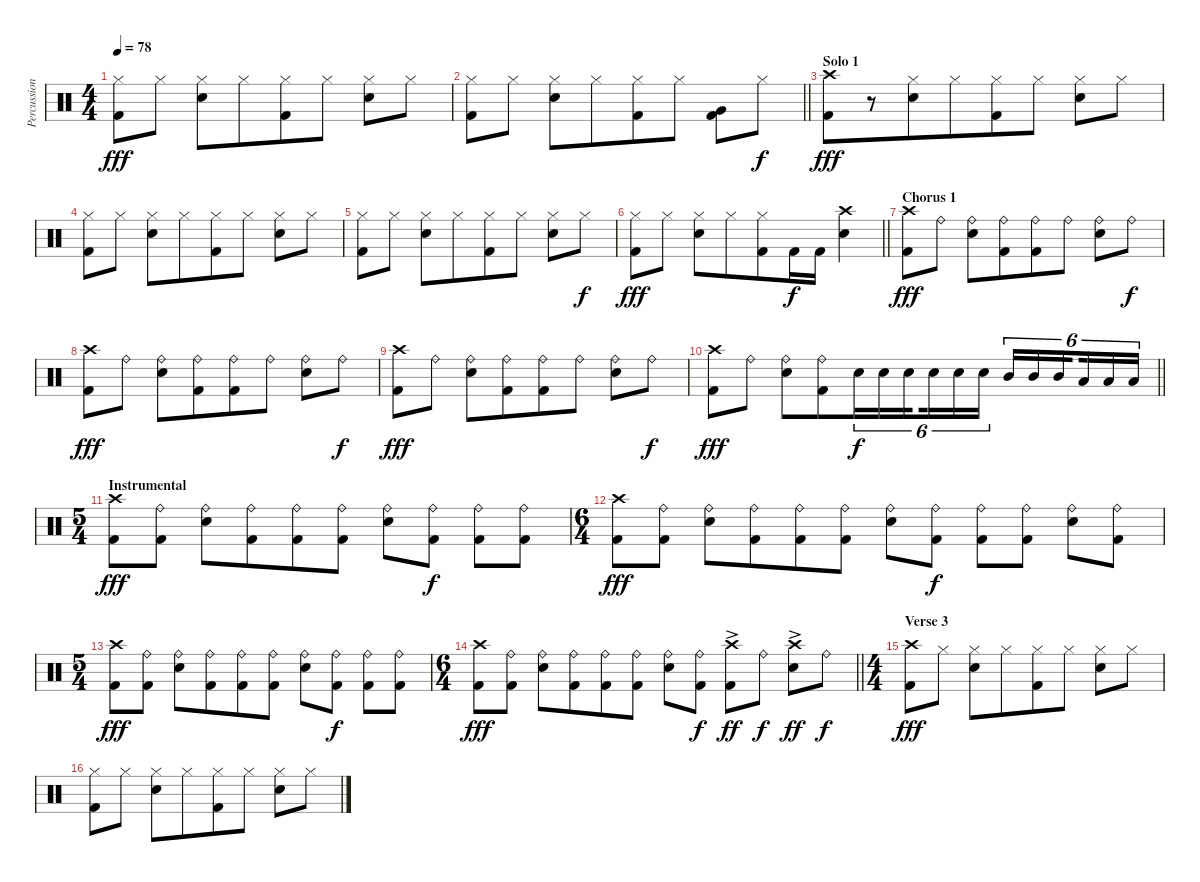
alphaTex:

\track ("Percussion" "Percussion") {instrument percussion}
\staff {score}
\articulation defaults
\ts (4 4)
\tempo 78
\clef neutral
\ks c
("Kick (hit) 2" "Hi-Hat (closed)").8{dy fff beam merge} "Hi-Hat (closed)".8 ("Electric Snare (hit)" "Hi-Hat (closed)").8 "Hi-Hat (closed)".8{beam merge} ("Kick (hit) 2" "Hi-Hat (closed)").8 "Hi-Hat (closed)".8 ("Electric Snare (hit)" "Hi-Hat (closed)").8{beam merge} "Hi-Hat (closed)".8 |
\barLineRight lightlight
("Kick (hit) 2" "Hi-Hat (closed)").8{beam merge} "Hi-Hat (closed)".8 ("Electric Snare (hit)" "Hi-Hat (closed)").8 "Hi-Hat (closed)".8{beam merge} ("Kick (hit) 2" "Hi-Hat (closed)").8 "Hi-Hat (closed)".8 ("Very Low Tom (hit)" "Kick (hit) 2").8{beam merge} "Hi-Hat (closed)".8{dy f} |
\section ("" "Solo 1")
("Kick (hit) 2" "Crash high (hit)").8{dy fff beam merge} r.8 ("Electric Snare (hit)" "Hi-Hat (closed)").8 "Hi-Hat (closed)".8{beam merge} ("Kick (hit) 2" "Hi-Hat (closed)").8 "Hi-Hat (closed)".8 ("Electric Snare (hit)" "Hi-Hat (closed)").8{beam merge} "Hi-Hat (closed)".8 |
("Kick (hit) 2" "Hi-Hat (closed)").8{beam merge} "Hi-Hat (closed)".8 ("Electric Snare (hit)" "Hi-Hat (closed)").8 "Hi-Hat (closed)".8{beam merge} ("Kick (hit) 2" "Hi-Hat (closed)").8 "Hi-Hat (closed)".8 ("Electric Snare (hit)" "Hi-Hat (closed)").8{beam merge} "Hi-Hat (closed)".8 |
("Kick (hit) 2" "Hi-Hat (closed)").8{beam merge} "Hi-Hat (closed)".8 ("Electric Snare (hit)" "Hi-Hat (closed)").8 "Hi-Hat (closed)".8{beam merge} ("Kick (hit) 2" "Hi-Hat (closed)").8 "Hi-Hat (closed)".8 ("Electric Snare (hit)" "Hi-Hat (closed)").8 "Hi-Hat (closed)".8{dy f} |
\barLineRight lightlight
("Kick (hit) 2" "Hi-Hat (closed)").8{dy fff beam merge} "Hi-Hat (closed)".8 ("Electric Snare (hit)" "Hi-Hat (closed)").8 "Hi-Hat (closed)".8{beam merge} ("Kick (hit) 2" "Hi-Hat (closed)").8 "Kick (hit) 2".16{dy f} "Kick (hit) 2".16 ("Electric Snare (hit)" "Crash high (hit)").4 |
\section ("" "Chorus 1")
("Kick (hit) 2" "Crash high (hit)").8{dy fff beam merge} "Ride (bell)".8 ("Electric Snare (hit)" "Ride (bell)").8 ("Kick (hit) 2" "Ride (bell)").8{beam merge} ("Kick (hit) 2" "Ride (bell)").8 "Ride (bell)".8 ("Electric Snare (hit)" "Ride (bell)").8 "Ride (bell)".8{dy f} |
("Kick (hit) 2" "Crash high (hit)").8{dy fff beam merge} "Ride (bell)".8 ("Electric Snare (hit)" "Ride (bell)").8 ("Kick (hit) 2" "Ride (bell)").8{beam merge} ("Kick (hit) 2" "Ride (bell)").8 "Ride (bell)".8 ("Electric Snare (hit)" "Ride (bell)").8 "Ride (bell)".8{dy f} |
("Kick (hit) 2" "Crash high (hit)").8{dy fff beam merge} "Ride (bell)".8 ("Electric Snare (hit)" "Ride (bell)").8 ("Kick (hit) 2" "Ride (bell)").8{beam merge} ("Kick (hit) 2" "Ride (bell)").8 "Ride (bell)".8 ("Electric Snare (hit)" "Ride (bell)").8 "Ride (bell)".8{dy f} |
\barLineRight lightlight
("Kick (hit) 2" "Crash high (hit)").8{dy fff beam merge} "Ride (bell)".8 ("Electric Snare (hit)" "Ride (bell)").8 ("Kick (hit) 2" "Ride (bell)").8{beam merge} "Electric Snare (hit)".16{tu (6 4) dy f} "Electric Snare (hit)".16{tu (6 4)} "Electric Snare (hit)".16{tu (6 4) beam splitsecondary} "Electric Snare (hit)".16{tu (6 4) beam merge} "Electric Snare (hit)".16{tu (6 4)} "Electric Snare (hit)".16{tu (6 4)} "Mid Tom (hit)".16{tu (6 4)} "Mid Tom (hit)".16{tu (6 4) beam merge} "Mid Tom (hit)".16{tu (6 4) beam splitsecondary} "Low Tom (hit)".16{tu (6 4)} "Low Tom (hit)".16{tu (6 4)} "Low Tom (hit)".16{tu (6 4)} |
\ts (5 4)
\section ("" "Instrumental")
("Kick (hit) 2" "Crash high (hit)").8{dy fff beam merge} ("Kick (hit) 2" "Ride (bell)").8 ("Electric Snare (hit)" "Ride (bell)").8 ("Kick (hit) 2" "Ride (bell)").8{beam merge} ("Kick (hit) 2" "Ride (bell)").8 ("Kick (hit) 2" "Ride (bell)").8 ("Electric Snare (hit)" "Ride (bell)").8 ("Kick (hit) 2" "Ride (bell)").8{dy f} ("Kick (hit) 2" "Ride (bell)").8 ("Kick (hit) 2" "Ride (bell)").8 |
\ts (6 4)
("Kick (hit) 2" "Crash high (hit)").8{dy fff beam merge} ("Kick (hit) 2" "Ride (bell)").8 ("Electric Snare (hit)" "Ride (bell)").8 ("Kick (hit) 2" "Ride (bell)").8{beam merge} ("Kick (hit) 2" "Ride (bell)").8 ("Kick (hit) 2" "Ride (bell)").8 ("Electric Snare (hit)" "Ride (bell)").8 ("Kick (hit) 2" "Ride (bell)").8{dy f} ("Kick (hit) 2" "Ride (bell)").8 ("Kick (hit) 2" "Ride (bell)").8 ("Electric Snare (hit)" "Ride (bell)").8{beam merge} ("Kick (hit) 2" "Ride (bell)").8 |
\ts (5 4)
("Kick (hit) 2" "Crash high (hit)").8{dy fff beam merge} ("Kick (hit) 2" "Ride (bell)").8 ("Electric Snare (hit)" "Ride (bell)").8 ("Kick (hit) 2" "Ride (bell)").8{beam merge} ("Kick (hit) 2" "Ride (bell)").8 ("Kick (hit) 2" "Ride (bell)").8 ("Electric Snare (hit)" "Ride (bell)").8 ("Kick (hit) 2" "Ride (bell)").8{dy f} ("Kick (hit) 2" "Ride (bell)").8 ("Kick (hit) 2" "Ride (bell)").8 |
\ts (6 4)
\barLineRight lightlight
("Kick (hit) 2" "Crash high (hit)").8{dy fff beam merge} ("Kick (hit) 2" "Ride (bell)").8 ("Electric Snare (hit)" "Ride (bell)").8 ("Kick (hit) 2" "Ride (bell)").8{beam merge} ("Kick (hit) 2" "Ride (bell)").8 ("Kick (hit) 2" "Ride (bell)").8 ("Electric Snare (hit)" "Ride (bell)").8 ("Kick (hit) 2" "Ride (bell)").8{dy f} ("Kick (hit) 2" "Crash high (hit)"{ac}).8{dy ff} "Ride (bell)".8{dy f} ("Electric Snare (hit)" "Crash high (hit)"{ac}).8{dy ff beam merge} "Ride (bell)".8{dy f} |
\ts (4 4)
\section ("" "Verse 3")
("Kick (hit) 2" "Crash high (hit)").8{dy fff beam merge} "Hi-Hat (closed)".8 ("Electric Snare (hit)" "Hi-Hat (closed)").8 "Hi-Hat (closed)".8{beam merge} ("Kick (hit) 2" "Hi-Hat (closed)").8 "Hi-Hat (closed)".8 ("Electric Snare (hit)" "Hi-Hat (closed)").8{beam merge} "Hi-Hat (closed)".8 |
("Kick (hit) 2" "Hi-Hat (closed)").8{beam merge} "Hi-Hat (closed)".8 ("Electric Snare (hit)" "Hi-Hat (closed)").8 "Hi-Hat (closed)".8{beam merge} ("Kick (hit) 2" "Hi-Hat (closed)").8 "Hi-Hat (closed)".8 ("Electric Snare (hit)" "Hi-Hat (closed)").8{beam merge} "Hi-Hat (closed)".8
